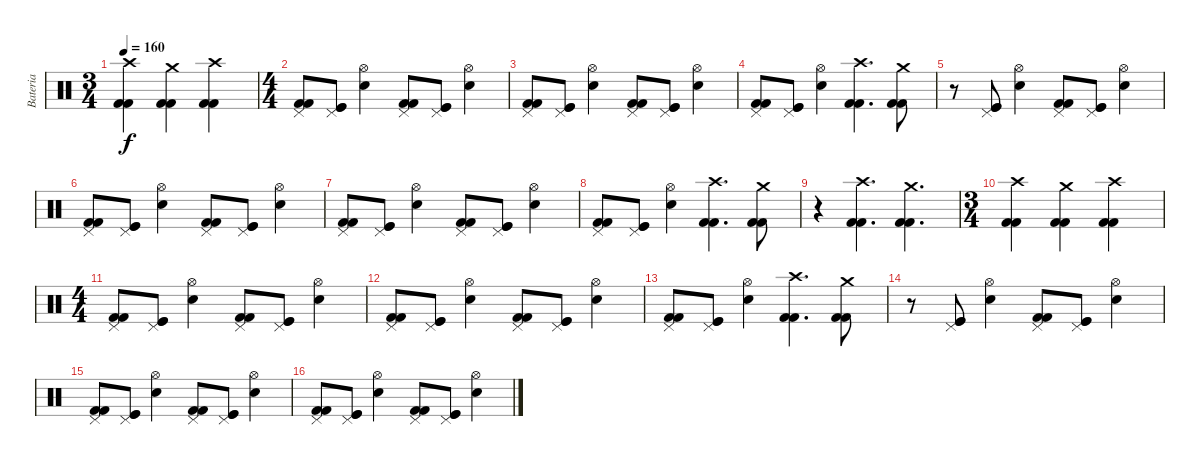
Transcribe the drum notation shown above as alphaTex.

\track ("Bateria" "Bateria") {instrument percussion}
\staff {score}
\articulation defaults
\ts (3 4)
\tempo 160
\clef neutral
\ks c
("Kick (hit) 2" "Kick (hit) 2" "Crash high (hit)").4{dy f} ("Kick (hit) 2" "Kick (hit) 2" "Crash medium (hit)").4 ("Kick (hit) 2" "Kick (hit) 2" "Crash high (hit)").4 |
\ts (4 4)
("Kick (hit) 2" "Kick (hit) 2" "Pedal Hi-Hat (hit)").8 ("Kick (hit)" "Kick (hit)" "Pedal Hi-Hat (hit)").8 ("Snare (hit) 2" "Hi-Hat (open)").4 ("Kick (hit) 2" "Kick (hit) 2" "Pedal Hi-Hat (hit)").8 ("Kick (hit)" "Kick (hit)" "Pedal Hi-Hat (hit)").8 ("Snare (hit) 2" "Hi-Hat (open)").4 |
("Kick (hit) 2" "Kick (hit) 2" "Pedal Hi-Hat (hit)").8 ("Kick (hit)" "Kick (hit)" "Pedal Hi-Hat (hit)").8 ("Snare (hit) 2" "Hi-Hat (open)").4 ("Kick (hit) 2" "Kick (hit) 2" "Pedal Hi-Hat (hit)").8 ("Kick (hit)" "Kick (hit)" "Pedal Hi-Hat (hit)").8 ("Snare (hit) 2" "Hi-Hat (open)").4 |
("Kick (hit) 2" "Kick (hit) 2" "Pedal Hi-Hat (hit)").8 ("Kick (hit)" "Kick (hit)" "Pedal Hi-Hat (hit)").8 ("Snare (hit) 2" "Hi-Hat (open)").4 ("Kick (hit) 2" "Kick (hit) 2" "Crash high (hit)").4{d} ("Kick (hit) 2" "Kick (hit) 2" "Crash medium (hit)").8 |
r.8 ("Kick (hit)" "Kick (hit)" "Pedal Hi-Hat (hit)").8 ("Snare (hit) 2" "Hi-Hat (open)").4 ("Kick (hit) 2" "Kick (hit) 2" "Pedal Hi-Hat (hit)").8 ("Kick (hit)" "Kick (hit)" "Pedal Hi-Hat (hit)").8 ("Snare (hit) 2" "Hi-Hat (open)").4 |
("Kick (hit) 2" "Kick (hit) 2" "Pedal Hi-Hat (hit)").8 ("Kick (hit)" "Kick (hit)" "Pedal Hi-Hat (hit)").8 ("Snare (hit) 2" "Hi-Hat (open)").4 ("Kick (hit) 2" "Kick (hit) 2" "Pedal Hi-Hat (hit)").8 ("Kick (hit)" "Kick (hit)" "Pedal Hi-Hat (hit)").8 ("Snare (hit) 2" "Hi-Hat (open)").4 |
("Kick (hit) 2" "Kick (hit) 2" "Pedal Hi-Hat (hit)").8 ("Kick (hit)" "Kick (hit)" "Pedal Hi-Hat (hit)").8 ("Snare (hit) 2" "Hi-Hat (open)").4 ("Kick (hit) 2" "Kick (hit) 2" "Pedal Hi-Hat (hit)").8 ("Kick (hit)" "Kick (hit)" "Pedal Hi-Hat (hit)").8 ("Snare (hit) 2" "Hi-Hat (open)").4 |
("Kick (hit) 2" "Kick (hit) 2" "Pedal Hi-Hat (hit)").8 ("Kick (hit)" "Kick (hit)" "Pedal Hi-Hat (hit)").8 ("Snare (hit) 2" "Hi-Hat (open)").4 ("Kick (hit) 2" "Kick (hit) 2" "Crash high (hit)").4{d} ("Kick (hit) 2" "Kick (hit) 2" "Crash medium (hit)").8 |
r.4 ("Kick (hit) 2" "Kick (hit) 2" "Crash high (hit)").4{d} ("Kick (hit) 2" "Kick (hit) 2" "Crash medium (hit)").4{d} |
\ts (3 4)
("Kick (hit) 2" "Kick (hit) 2" "Crash high (hit)").4 ("Kick (hit) 2" "Kick (hit) 2" "Crash medium (hit)").4 ("Kick (hit) 2" "Kick (hit) 2" "Crash high (hit)").4 |
\ts (4 4)
("Kick (hit) 2" "Kick (hit) 2" "Pedal Hi-Hat (hit)").8 ("Kick (hit)" "Kick (hit)" "Pedal Hi-Hat (hit)").8 ("Snare (hit) 2" "Hi-Hat (open)").4 ("Kick (hit) 2" "Kick (hit) 2" "Pedal Hi-Hat (hit)").8 ("Kick (hit)" "Kick (hit)" "Pedal Hi-Hat (hit)").8 ("Snare (hit) 2" "Hi-Hat (open)").4 |
("Kick (hit) 2" "Kick (hit) 2" "Pedal Hi-Hat (hit)").8 ("Kick (hit)" "Kick (hit)" "Pedal Hi-Hat (hit)").8 ("Snare (hit) 2" "Hi-Hat (open)").4 ("Kick (hit) 2" "Kick (hit) 2" "Pedal Hi-Hat (hit)").8 ("Kick (hit)" "Kick (hit)" "Pedal Hi-Hat (hit)").8 ("Snare (hit) 2" "Hi-Hat (open)").4 |
("Kick (hit) 2" "Kick (hit) 2" "Pedal Hi-Hat (hit)").8 ("Kick (hit)" "Kick (hit)" "Pedal Hi-Hat (hit)").8 ("Snare (hit) 2" "Hi-Hat (open)").4 ("Kick (hit) 2" "Kick (hit) 2" "Crash high (hit)").4{d} ("Kick (hit) 2" "Kick (hit) 2" "Crash medium (hit)").8 |
r.8 ("Kick (hit)" "Kick (hit)" "Pedal Hi-Hat (hit)").8 ("Snare (hit) 2" "Hi-Hat (open)").4 ("Kick (hit) 2" "Kick (hit) 2" "Pedal Hi-Hat (hit)").8 ("Kick (hit)" "Kick (hit)" "Pedal Hi-Hat (hit)").8 ("Snare (hit) 2" "Hi-Hat (open)").4 |
("Kick (hit) 2" "Kick (hit) 2" "Pedal Hi-Hat (hit)").8 ("Kick (hit)" "Kick (hit)" "Pedal Hi-Hat (hit)").8 ("Snare (hit) 2" "Hi-Hat (open)").4 ("Kick (hit) 2" "Kick (hit) 2" "Pedal Hi-Hat (hit)").8 ("Kick (hit)" "Kick (hit)" "Pedal Hi-Hat (hit)").8 ("Snare (hit) 2" "Hi-Hat (open)").4 |
("Kick (hit) 2" "Kick (hit) 2" "Pedal Hi-Hat (hit)").8 ("Kick (hit)" "Kick (hit)" "Pedal Hi-Hat (hit)").8 ("Snare (hit) 2" "Hi-Hat (open)").4 ("Kick (hit) 2" "Kick (hit) 2" "Pedal Hi-Hat (hit)").8 ("Kick (hit)" "Kick (hit)" "Pedal Hi-Hat (hit)").8 ("Snare (hit) 2" "Hi-Hat (open)").4
